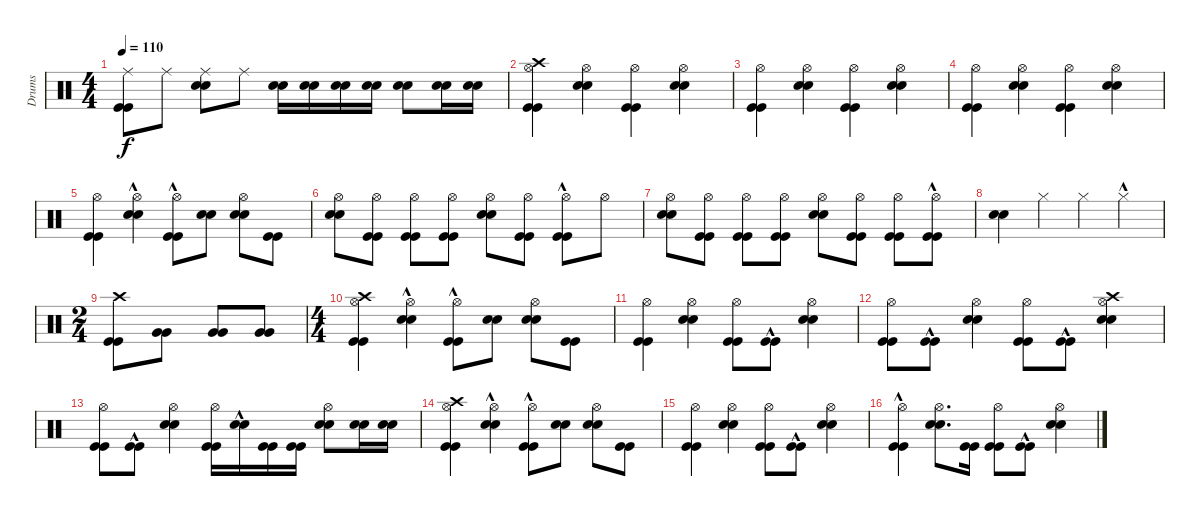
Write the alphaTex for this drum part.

\track ("Drums" "Drums") {instrument percussion}
\staff {score}
\articulation defaults
\ts (4 4)
\tempo 110
\clef neutral
\ks c
("Kick (hit)" "Kick (hit)" "Ride (middle)").8{dy f} "Ride (middle)".8 ("Snare (hit) 2" "Snare (hit) 2" "Ride (middle)").8 "Ride (middle)".8 ("Snare (hit) 2" "Snare (hit) 2").16 ("Snare (hit) 2" "Snare (hit) 2").16 ("Snare (hit) 2" "Snare (hit) 2").16 ("Snare (hit) 2" "Snare (hit) 2").16 ("Snare (hit) 2" "Snare (hit) 2").8 ("Snare (hit) 2" "Snare (hit) 2").16 ("Snare (hit) 2" "Snare (hit) 2").16 |
("Kick (hit)" "Kick (hit)" "Hi-Hat (open)" "Crash high (hit)").4 ("Snare (hit) 2" "Snare (hit) 2" "Hi-Hat (open)").4 ("Kick (hit)" "Kick (hit)" "Hi-Hat (open)").4 ("Snare (hit) 2" "Snare (hit) 2" "Hi-Hat (open)").4 |
("Kick (hit)" "Kick (hit)" "Hi-Hat (open)").4 ("Snare (hit) 2" "Snare (hit) 2" "Hi-Hat (open)").4 ("Kick (hit)" "Kick (hit)" "Hi-Hat (open)").4 ("Snare (hit) 2" "Snare (hit) 2" "Hi-Hat (open)").4 |
("Kick (hit)" "Kick (hit)" "Hi-Hat (open)").4 ("Snare (hit) 2" "Snare (hit) 2" "Hi-Hat (open)").4 ("Kick (hit)" "Kick (hit)" "Hi-Hat (open)").4 ("Snare (hit) 2" "Snare (hit) 2" "Hi-Hat (open)").4 |
("Kick (hit)" "Kick (hit)" "Hi-Hat (open)").4 ("Snare (hit) 2"{hac} "Snare (hit) 2"{hac} "Hi-Hat (open)").4 ("Kick (hit)"{hac} "Kick (hit)"{hac} "Hi-Hat (open)").8 ("Snare (hit) 2" "Snare (hit) 2").8 ("Snare (hit) 2" "Snare (hit) 2" "Hi-Hat (open)").8 ("Kick (hit)" "Kick (hit)").8 |
("Snare (hit) 2" "Snare (hit) 2" "Hi-Hat (open)").8 ("Kick (hit)" "Kick (hit)" "Hi-Hat (open)").8 ("Kick (hit)" "Kick (hit)" "Hi-Hat (open)").8 ("Kick (hit)" "Kick (hit)" "Hi-Hat (open)").8 ("Snare (hit) 2" "Snare (hit) 2" "Hi-Hat (open)").8 ("Kick (hit)" "Kick (hit)" "Hi-Hat (open)").8 ("Kick (hit)"{hac} "Kick (hit)"{hac} "Hi-Hat (open)").8 "Hi-Hat (open)".8 |
("Snare (hit) 2" "Snare (hit) 2" "Hi-Hat (open)").8 ("Kick (hit)" "Kick (hit)" "Hi-Hat (open)").8 ("Kick (hit)" "Kick (hit)" "Hi-Hat (open)").8 ("Kick (hit)" "Kick (hit)" "Hi-Hat (open)").8 ("Snare (hit) 2" "Snare (hit) 2" "Hi-Hat (open)").8 ("Kick (hit)" "Kick (hit)" "Hi-Hat (open)").8 ("Kick (hit)" "Kick (hit)" "Hi-Hat (open)").8 ("Kick (hit)" "Kick (hit)" "Hi-Hat (open)"{hac}).8 |
("Snare (hit) 2" "Snare (hit) 2").4 "Hi-Hat (closed)".4 "Hi-Hat (closed)".4 "Hi-Hat (closed)"{hac}.4 |
\ts (2 4)
("Kick (hit)" "Kick (hit)" "Crash high (hit)").8 ("Very Low Tom (hit)" "Very Low Tom (hit)").8 ("Very Low Tom (hit)" "Very Low Tom (hit)").8 ("Very Low Tom (hit)" "Very Low Tom (hit)").8 |
\ts (4 4)
("Kick (hit)" "Kick (hit)" "Hi-Hat (open)" "Crash high (hit)").4 ("Snare (hit) 2"{hac} "Snare (hit) 2"{hac} "Hi-Hat (open)").4 ("Kick (hit)"{hac} "Kick (hit)"{hac} "Hi-Hat (open)").8 ("Snare (hit) 2" "Snare (hit) 2").8 ("Snare (hit) 2" "Snare (hit) 2" "Hi-Hat (open)").8 ("Kick (hit)" "Kick (hit)").8 |
("Kick (hit)" "Kick (hit)" "Hi-Hat (open)").4 ("Snare (hit) 2" "Snare (hit) 2" "Hi-Hat (open)").4 ("Kick (hit)" "Kick (hit)" "Hi-Hat (open)").8 ("Kick (hit)"{hac} "Kick (hit)"{hac}).8 ("Snare (hit) 2" "Snare (hit) 2" "Hi-Hat (open)").4 |
("Kick (hit)" "Kick (hit)" "Hi-Hat (open)").8 ("Kick (hit)"{hac} "Kick (hit)"{hac}).8 ("Snare (hit) 2" "Snare (hit) 2" "Hi-Hat (open)").4 ("Kick (hit)" "Kick (hit)" "Hi-Hat (open)").8 ("Kick (hit)"{hac} "Kick (hit)"{hac}).8 ("Snare (hit) 2" "Snare (hit) 2" "Hi-Hat (open)" "Crash high (hit)").4 |
("Kick (hit)" "Kick (hit)" "Hi-Hat (open)").8 ("Kick (hit)"{hac} "Kick (hit)"{hac}).8 ("Snare (hit) 2" "Snare (hit) 2" "Hi-Hat (open)").4 ("Kick (hit)" "Kick (hit)" "Hi-Hat (open)").16 ("Snare (hit) 2"{hac} "Snare (hit) 2"{hac}).16 ("Kick (hit)" "Kick (hit)").16 ("Kick (hit)" "Kick (hit)").16 ("Snare (hit) 2" "Snare (hit) 2" "Hi-Hat (open)").8 ("Snare (hit) 2" "Snare (hit) 2").16 ("Snare (hit) 2" "Snare (hit) 2").16 |
("Kick (hit)" "Kick (hit)" "Hi-Hat (open)" "Crash high (hit)").4 ("Snare (hit) 2"{hac} "Snare (hit) 2"{hac} "Hi-Hat (open)").4 ("Kick (hit)"{hac} "Kick (hit)"{hac} "Hi-Hat (open)").8 ("Snare (hit) 2" "Snare (hit) 2").8 ("Snare (hit) 2" "Snare (hit) 2" "Hi-Hat (open)").8 ("Kick (hit)" "Kick (hit)").8 |
("Kick (hit)" "Kick (hit)" "Hi-Hat (open)").4 ("Snare (hit) 2" "Snare (hit) 2" "Hi-Hat (open)").4 ("Kick (hit)" "Kick (hit)" "Hi-Hat (open)").8 ("Kick (hit)"{hac} "Kick (hit)"{hac}).8 ("Snare (hit) 2" "Snare (hit) 2" "Hi-Hat (open)").4 |
("Kick (hit)"{hac} "Kick (hit)"{hac} "Hi-Hat (open)").4 ("Snare (hit) 2" "Snare (hit) 2" "Hi-Hat (open)").8{d} ("Kick (hit)" "Kick (hit)").16 ("Kick (hit)" "Kick (hit)" "Hi-Hat (open)").8 ("Kick (hit)"{hac} "Kick (hit)"{hac}).8 ("Snare (hit) 2" "Snare (hit) 2" "Hi-Hat (open)").4
